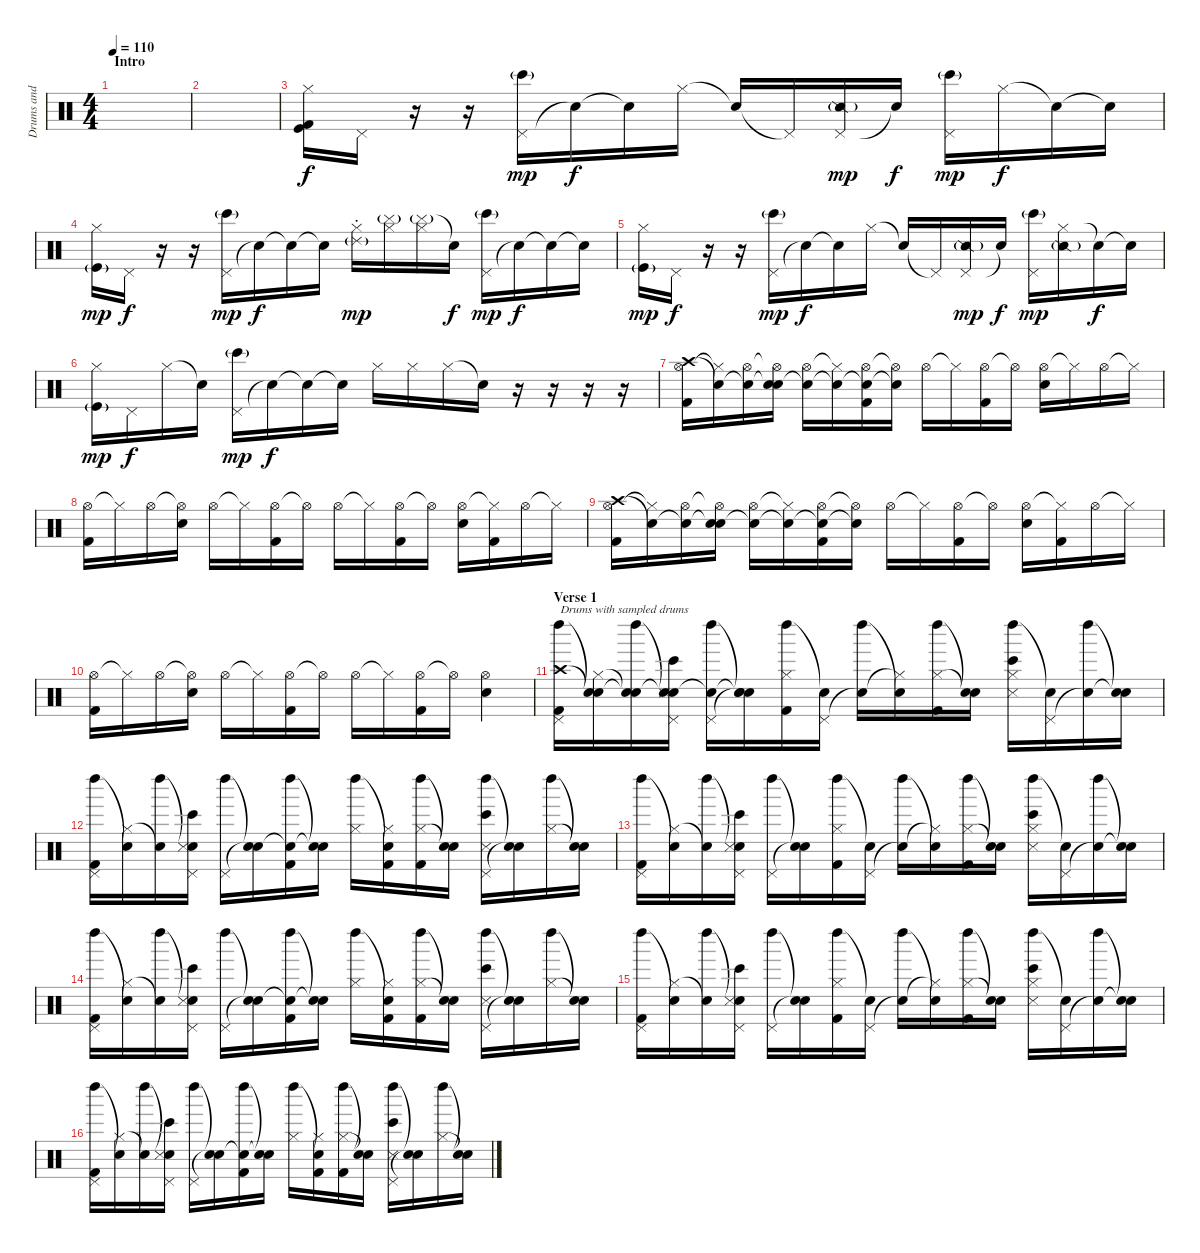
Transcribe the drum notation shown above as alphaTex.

\track ("Drums and sampler(Rob Bourdon and Joe)" "Drums and ") {instrument percussion}
\staff {score}
\articulation defaults
\ts (4 4)
\section ("" "Intro")
\tempo 110
\clef neutral
\ks c
|
|
("Hi-Hat (closed)" "Kick (hit)" "Kick (hit) 2").16 "Pedal Hi-Hat (hit)".16 r.16 r.16 ("Pedal Hi-Hat (hit)" "Bongo High (hit)"{g}).16{dy mp} "Snare (hit)"{t}.16{dy f} "Snare (hit)"{t}.16 "Hi-Hat (closed)".16 "Snare (hit)"{t}.16 "Pedal Hi-Hat (hit)"{t}.16 ("Pedal Hi-Hat (hit)" "Snare (side stick) 2"{g}).16{dy mp} "Snare (hit)"{t}.16{dy f} ("Pedal Hi-Hat (hit)" "Bongo High (hit)"{g}).16{dy mp} "Hi-Hat (closed)".16{dy f} "Snare (hit)"{t}.16 "Snare (hit)"{t}.16 |
("Hi-Hat (closed)" "Kick (hit)"{g}).16{dy mp} "Pedal Hi-Hat (hit)".16{dy f} r.16 r.16 ("Pedal Hi-Hat (hit)" "Bongo High (hit)"{g}).16{dy mp} "Snare (hit)"{t}.16{dy f} "Snare (hit)"{t}.16 "Snare (hit)"{t}.16 ("Ride (choke) 2"{g} "Hi-Hat (closed)").16{dy mp} ("Cymbal (hit)"{g} "Hi-Hat (closed)").16 ("Cymbal (hit)"{g} "Hi-Hat (closed)").16 "Snare (hit)"{t}.16{dy f} ("Pedal Hi-Hat (hit)" "Bongo High (hit)"{g}).16{dy mp} "Snare (hit)"{t}.16{dy f} "Snare (hit)"{t}.16 "Snare (hit)"{t}.16 |
("Hi-Hat (closed)" "Kick (hit)"{g}).16{dy mp} "Pedal Hi-Hat (hit)".16{dy f} r.16 r.16 ("Pedal Hi-Hat (hit)" "Bongo High (hit)"{g}).16{dy mp} "Snare (hit)"{t}.16{dy f} "Snare (hit)"{t}.16 "Hi-Hat (closed)".16 "Snare (hit)"{t}.16 "Pedal Hi-Hat (hit)"{t}.16 ("Pedal Hi-Hat (hit)" "Snare (side stick) 2"{g}).16{dy mp} "Snare (hit)"{t}.16{dy f} ("Pedal Hi-Hat (hit)" "Bongo High (hit)"{g}).16{dy mp} ("Hi-Hat (closed)" "Snare (side stick) 2"{g}).16 "Snare (hit)"{t}.16{dy f} "Snare (hit)"{t}.16 |
("Hi-Hat (closed)" "Kick (hit)"{g}).16{dy mp} "Pedal Hi-Hat (hit)".16{dy f} "Hi-Hat (closed)".16 "Snare (hit)"{t}.16 ("Pedal Hi-Hat (hit)" "Bongo High (hit)"{g}).16{dy mp} "Snare (hit)"{t}.16{dy f} "Snare (hit)"{t}.16 "Snare (hit)"{t}.16 "Hi-Hat (closed)".16 "Hi-Hat (closed)".16 "Hi-Hat (closed)".16 "Snare (hit)"{t}.16 r.16 r.16 r.16 r.16 |
("Crash high (hit)" "Hi-Hat (open)" "Kick (hit) 2").16{volume 13} ("Snare (hit)"{t} "Hi-Hat (closed)"{t}).16 ("Snare (hit)"{t} "Hi-Hat (open)").16 ("Snare (hit)"{t} "Hi-Hat (open)"{t} "Electric Snare (hit)").16 ("Snare (hit)"{t} "Hi-Hat (open)").16 ("Snare (hit)"{t} "Hi-Hat (closed)"{t}).16 ("Snare (hit)"{t} "Hi-Hat (open)" "Kick (hit) 2").16 ("Snare (hit)"{t} "Hi-Hat (open)"{t}).16 "Hi-Hat (open)".16 "Hi-Hat (closed)"{t}.16 ("Hi-Hat (open)" "Kick (hit) 2").16 "Hi-Hat (open)"{t}.16 ("Hi-Hat (open)" "Electric Snare (hit)").16 "Hi-Hat (closed)"{t}.16 "Hi-Hat (open)".16 "Hi-Hat (closed)"{t}.16 |
("Hi-Hat (open)" "Kick (hit) 2").16 "Hi-Hat (closed)"{t}.16 "Hi-Hat (open)".16 ("Hi-Hat (open)"{t} "Electric Snare (hit)").16 "Hi-Hat (open)".16 "Hi-Hat (closed)"{t}.16 ("Hi-Hat (open)" "Kick (hit) 2").16 "Hi-Hat (open)"{t}.16 "Hi-Hat (open)".16 "Hi-Hat (closed)"{t}.16 ("Hi-Hat (open)" "Kick (hit) 2").16 "Hi-Hat (open)"{t}.16 ("Hi-Hat (open)" "Electric Snare (hit)").16 ("Hi-Hat (closed)"{t} "Kick (hit) 2").16 "Hi-Hat (open)".16 "Hi-Hat (closed)"{t}.16 |
("Crash high (hit)" "Hi-Hat (open)" "Kick (hit) 2").16 ("Snare (hit)"{t} "Hi-Hat (closed)"{t}).16 ("Snare (hit)"{t} "Hi-Hat (open)").16 ("Snare (hit)"{t} "Hi-Hat (open)"{t} "Electric Snare (hit)").16 ("Snare (hit)"{t} "Hi-Hat (open)").16 ("Snare (hit)"{t} "Hi-Hat (closed)"{t}).16 ("Snare (hit)"{t} "Hi-Hat (open)" "Kick (hit) 2").16 ("Snare (hit)"{t} "Hi-Hat (open)"{t}).16 "Hi-Hat (open)".16 "Hi-Hat (closed)"{t}.16 ("Hi-Hat (open)" "Kick (hit) 2").16 "Hi-Hat (open)"{t}.16 ("Hi-Hat (open)" "Electric Snare (hit)").16 ("Hi-Hat (closed)"{t} "Kick (hit) 2").16 "Hi-Hat (open)".16 "Hi-Hat (closed)"{t}.16 |
("Hi-Hat (open)" "Kick (hit) 2").16 "Hi-Hat (closed)"{t}.16 "Hi-Hat (open)".16 ("Hi-Hat (open)"{t} "Electric Snare (hit)").16 "Hi-Hat (open)".16 "Hi-Hat (closed)"{t}.16 ("Hi-Hat (open)" "Kick (hit) 2").16 "Hi-Hat (open)"{t}.16 "Hi-Hat (open)".16 "Hi-Hat (closed)"{t}.16 ("Hi-Hat (open)" "Kick (hit) 2").16 "Hi-Hat (open)"{t}.16 ("Hi-Hat (open)" "Electric Snare (hit)").4 |
\section ("" "Verse 1")
("Crash high (hit)" "Left Maraca (hit)" "Pedal Hi-Hat (hit)" "Kick (hit) 2").16{txt "Drums with sampled drums"} ("Snare (hit)"{t} "Snare (hit)"{t} "Hi-Hat (closed)").16 ("Snare (hit)"{t} "Left Maraca (hit)" "Snare (hit)"{t}).16 ("Snare (hit)"{t} "Snare (hit)"{t} "Pedal Hi-Hat (hit)" "Bongo High (hit)" "Snare (side stick) 3").16 ("Snare (hit)"{t} "Left Maraca (hit)" "Pedal Hi-Hat (hit)").16 ("Snare (hit)"{t} "Snare (hit)"{t} "Snare (hit)"{t}).16 ("Left Maraca (hit)" "Hi-Hat (closed)" "Kick (hit) 2").16 ("Snare (hit)"{t} "Pedal Hi-Hat (hit)").16 ("Left Maraca (hit)" "Snare (hit)"{t}).16 ("Snare (hit)"{t} "Hi-Hat (closed)"{t}).16 ("Left Maraca (hit)" "Hi-Hat (closed)" "Kick (hit) 2").16 ("Snare (hit)"{t} "Snare (hit)"{t}).16 ("Left Maraca (hit)" "Hi-Hat (closed)" "Bongo High (hit)" "Snare (side stick) 3").16 ("Snare (hit)"{t} "Pedal Hi-Hat (hit)").16 ("Left Maraca (hit)" "Snare (hit)"{t}).16 ("Snare (hit)"{t} "Snare (hit)"{t}).16 |
("Left Maraca (hit)" "Pedal Hi-Hat (hit)" "Kick (hit) 2").16 ("Snare (hit)"{t} "Hi-Hat (closed)").16 ("Left Maraca (hit)" "Snare (hit)"{t}).16 ("Snare (hit)"{t} "Pedal Hi-Hat (hit)" "Bongo High (hit)" "Snare (side stick) 3").16 ("Left Maraca (hit)" "Pedal Hi-Hat (hit)").16 ("Snare (hit)"{t} "Snare (hit)"{t}).16 ("Left Maraca (hit)" "Snare (hit)"{t} "Kick (hit) 2").16 ("Snare (hit)"{t} "Snare (hit)"{t}).16 ("Left Maraca (hit)" "Hi-Hat (closed)").16 ("Snare (hit)"{t} "Hi-Hat (closed)" "Kick (hit) 2").16 ("Left Maraca (hit)" "Hi-Hat (closed)" "Kick (hit) 2").16 ("Snare (hit)"{t} "Snare (hit)"{t}).16 ("Left Maraca (hit)" "Pedal Hi-Hat (hit)" "Bongo High (hit)" "Snare (side stick) 3").16 ("Snare (hit)"{t} "Snare (hit)"{t}).16 ("Left Maraca (hit)" "Hi-Hat (closed)").16 ("Snare (hit)"{t} "Snare (hit)"{t}).16 |
("Left Maraca (hit)" "Pedal Hi-Hat (hit)" "Kick (hit) 2").16 ("Snare (hit)"{t} "Hi-Hat (closed)").16 ("Left Maraca (hit)" "Snare (hit)"{t}).16 ("Snare (hit)"{t} "Pedal Hi-Hat (hit)" "Bongo High (hit)" "Snare (side stick) 3").16 ("Left Maraca (hit)" "Pedal Hi-Hat (hit)").16 ("Snare (hit)"{t} "Snare (hit)"{t}).16 ("Left Maraca (hit)" "Hi-Hat (closed)" "Kick (hit) 2").16 ("Snare (hit)"{t} "Pedal Hi-Hat (hit)").16 ("Left Maraca (hit)" "Snare (hit)"{t}).16 ("Snare (hit)"{t} "Hi-Hat (closed)"{t}).16 ("Left Maraca (hit)" "Hi-Hat (closed)" "Kick (hit) 2").16 ("Snare (hit)"{t} "Snare (hit)"{t}).16 ("Left Maraca (hit)" "Hi-Hat (closed)" "Bongo High (hit)" "Snare (side stick) 3").16 ("Snare (hit)"{t} "Pedal Hi-Hat (hit)").16 ("Left Maraca (hit)" "Snare (hit)"{t}).16 ("Snare (hit)"{t} "Snare (hit)"{t}).16 |
("Left Maraca (hit)" "Pedal Hi-Hat (hit)" "Kick (hit) 2").16 ("Snare (hit)"{t} "Hi-Hat (closed)").16 ("Left Maraca (hit)" "Snare (hit)"{t}).16 ("Snare (hit)"{t} "Pedal Hi-Hat (hit)" "Bongo High (hit)" "Snare (side stick) 3").16 ("Left Maraca (hit)" "Pedal Hi-Hat (hit)").16 ("Snare (hit)"{t} "Snare (hit)"{t}).16 ("Left Maraca (hit)" "Snare (hit)"{t} "Kick (hit) 2").16 ("Snare (hit)"{t} "Snare (hit)"{t}).16 ("Left Maraca (hit)" "Hi-Hat (closed)").16 ("Snare (hit)"{t} "Hi-Hat (closed)" "Kick (hit) 2").16 ("Left Maraca (hit)" "Hi-Hat (closed)" "Kick (hit) 2").16 ("Snare (hit)"{t} "Snare (hit)"{t}).16 ("Left Maraca (hit)" "Pedal Hi-Hat (hit)" "Bongo High (hit)" "Snare (side stick) 3").16 ("Snare (hit)"{t} "Snare (hit)"{t}).16 ("Left Maraca (hit)" "Hi-Hat (closed)").16 ("Snare (hit)"{t} "Snare (hit)"{t}).16 |
("Left Maraca (hit)" "Pedal Hi-Hat (hit)" "Kick (hit) 2").16 ("Snare (hit)"{t} "Hi-Hat (closed)").16 ("Left Maraca (hit)" "Snare (hit)"{t}).16 ("Snare (hit)"{t} "Pedal Hi-Hat (hit)" "Bongo High (hit)" "Snare (side stick) 3").16 ("Left Maraca (hit)" "Pedal Hi-Hat (hit)").16 ("Snare (hit)"{t} "Snare (hit)"{t}).16 ("Left Maraca (hit)" "Hi-Hat (closed)" "Kick (hit) 2").16 ("Snare (hit)"{t} "Pedal Hi-Hat (hit)").16 ("Left Maraca (hit)" "Snare (hit)"{t}).16 ("Snare (hit)"{t} "Hi-Hat (closed)"{t}).16 ("Left Maraca (hit)" "Hi-Hat (closed)" "Kick (hit) 2").16 ("Snare (hit)"{t} "Snare (hit)"{t}).16 ("Left Maraca (hit)" "Hi-Hat (closed)" "Bongo High (hit)" "Snare (side stick) 3").16 ("Snare (hit)"{t} "Pedal Hi-Hat (hit)").16 ("Left Maraca (hit)" "Snare (hit)"{t}).16 ("Snare (hit)"{t} "Snare (hit)"{t}).16 |
("Left Maraca (hit)" "Pedal Hi-Hat (hit)" "Kick (hit) 2").16 ("Snare (hit)"{t} "Hi-Hat (closed)").16 ("Left Maraca (hit)" "Snare (hit)"{t}).16 ("Snare (hit)"{t} "Pedal Hi-Hat (hit)" "Bongo High (hit)" "Snare (side stick) 3").16 ("Left Maraca (hit)" "Pedal Hi-Hat (hit)").16 ("Snare (hit)"{t} "Snare (hit)"{t}).16 ("Left Maraca (hit)" "Snare (hit)"{t} "Kick (hit) 2").16 ("Snare (hit)"{t} "Snare (hit)"{t}).16 ("Left Maraca (hit)" "Hi-Hat (closed)").16 ("Snare (hit)"{t} "Hi-Hat (closed)" "Kick (hit) 2").16 ("Left Maraca (hit)" "Hi-Hat (closed)" "Kick (hit) 2").16 ("Snare (hit)"{t} "Snare (hit)"{t}).16 ("Left Maraca (hit)" "Pedal Hi-Hat (hit)" "Bongo High (hit)" "Snare (side stick) 3").16 ("Snare (hit)"{t} "Snare (hit)"{t}).16 ("Left Maraca (hit)" "Hi-Hat (closed)").16 ("Snare (hit)"{t} "Snare (hit)"{t}).16
